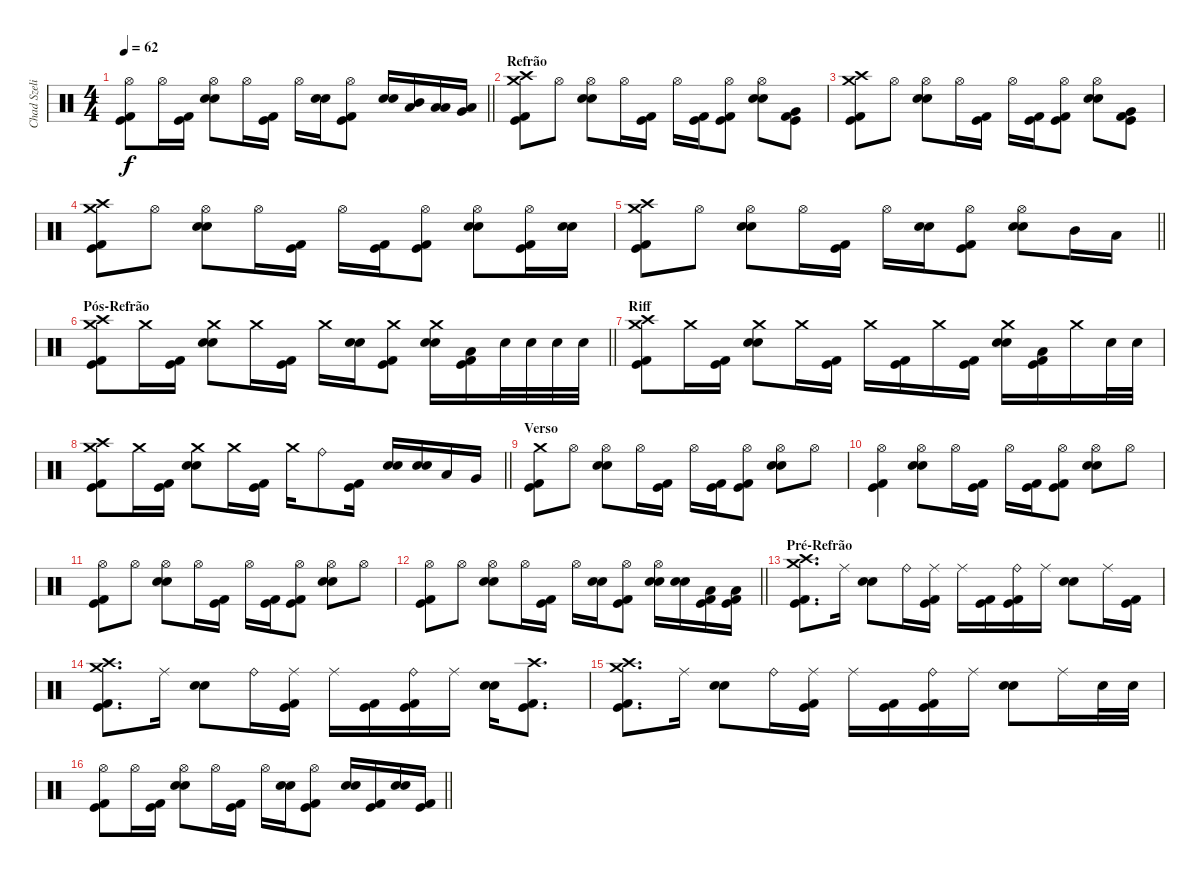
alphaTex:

\track ("Chad Szeliga" "Chad Szeli") {instrument percussion}
\staff {score}
\articulation defaults
\ts (4 4)
\tempo 62
\clef neutral
\barLineRight lightlight
\ks c
("Kick (hit) 2" "Kick (hit)" "Hi-Hat (open)").8{dy f} "Hi-Hat (open)".16 ("Kick (hit) 2" "Kick (hit)").16 ("Snare (hit) 2" "Snare (hit) 2" "Hi-Hat (open)").8 "Hi-Hat (open)".16 ("Kick (hit) 2" "Kick (hit)").16 "Hi-Hat (open)".16 ("Snare (hit) 2" "Snare (hit) 2").16 ("Kick (hit) 2" "Kick (hit)" "Hi-Hat (open)").8 ("Snare (hit) 2" "Snare (hit) 2").16 ("Mid Tom (hit)" "Low Tom (hit)").16 ("Low Tom (hit)" "Low Tom (hit)").16 ("Very Low Tom (hit)" "Low Tom (hit)").16 |
\section ("" "Refrão")
("Crash high (hit)" "Kick (hit) 2" "Kick (hit)" "Crash medium (hit)").8 "Hi-Hat (open)".8 ("Snare (hit) 2" "Snare (hit) 2" "Hi-Hat (open)").8 "Hi-Hat (open)".16 ("Kick (hit) 2" "Kick (hit)").16 "Hi-Hat (open)".16 ("Kick (hit) 2" "Kick (hit)").16 ("Kick (hit) 2" "Kick (hit)" "Hi-Hat (open)").8 ("Snare (hit) 2" "Snare (hit) 2" "Hi-Hat (open)").8 ("Kick (hit) 2" "Kick (hit)" "Very Low Tom (hit)").8 |
("Crash high (hit)" "Kick (hit) 2" "Kick (hit)" "Crash medium (hit)").8 "Hi-Hat (open)".8 ("Snare (hit) 2" "Snare (hit) 2" "Hi-Hat (open)").8 "Hi-Hat (open)".16 ("Kick (hit) 2" "Kick (hit)").16 "Hi-Hat (open)".16 ("Kick (hit) 2" "Kick (hit)").16 ("Kick (hit) 2" "Kick (hit)" "Hi-Hat (open)").8 ("Snare (hit) 2" "Snare (hit) 2" "Hi-Hat (open)").8 ("Kick (hit) 2" "Kick (hit)" "Very Low Tom (hit)").8 |
("Crash high (hit)" "Kick (hit) 2" "Kick (hit)" "Crash medium (hit)").8 "Hi-Hat (open)".8 ("Snare (hit) 2" "Snare (hit) 2" "Hi-Hat (open)").8 "Hi-Hat (open)".16 ("Kick (hit) 2" "Kick (hit)").16 "Hi-Hat (open)".16 ("Kick (hit) 2" "Kick (hit)").16 ("Kick (hit) 2" "Kick (hit)" "Hi-Hat (open)").8 ("Snare (hit) 2" "Snare (hit) 2" "Hi-Hat (open)").8 ("Kick (hit) 2" "Kick (hit)" "Hi-Hat (open)").16 ("Snare (hit) 2" "Snare (hit) 2").16 |
\barLineRight lightlight
("Crash high (hit)" "Kick (hit) 2" "Kick (hit)" "Crash medium (hit)").8 "Hi-Hat (open)".8 ("Snare (hit) 2" "Snare (hit) 2" "Hi-Hat (open)").8 "Hi-Hat (open)".16 ("Kick (hit) 2" "Kick (hit)").16 "Hi-Hat (open)".16 ("Snare (hit) 2" "Snare (hit) 2").16 ("Kick (hit) 2" "Kick (hit)" "Hi-Hat (open)").8 ("Snare (hit) 2" "Snare (hit) 2" "Hi-Hat (open)").8 "Mid Tom (hit)".16 "Low Tom (hit)".16 |
\section ("" "Pós-Refrão")
\barLineRight lightlight
("Crash high (hit)" "Kick (hit) 2" "Kick (hit)" "Crash medium (hit)").8 "Crash medium (hit)".16 ("Kick (hit) 2" "Kick (hit)").16 ("Crash medium (hit)" "Snare (hit) 2" "Snare (hit) 2").8 "Crash medium (hit)".16 ("Kick (hit) 2" "Kick (hit)").16 "Crash medium (hit)".16 ("Snare (hit) 2" "Snare (hit) 2").16 ("Crash medium (hit)" "Kick (hit) 2" "Kick (hit)").8 ("Crash medium (hit)" "Snare (hit) 2" "Snare (hit) 2").16 ("Kick (hit) 2" "Kick (hit)" "Low Tom (hit)").16 "Snare (hit) 2".32 "Snare (hit) 2".32 "Snare (hit) 2".32 "Snare (hit) 2".32 |
\section ("" "Riff")
("Crash high (hit)" "Kick (hit) 2" "Kick (hit)" "Crash medium (hit)").8 "Crash medium (hit)".16 ("Kick (hit) 2" "Kick (hit)").16 ("Crash medium (hit)" "Snare (hit) 2" "Snare (hit) 2").8 "Crash medium (hit)".16 ("Kick (hit) 2" "Kick (hit)").16 "Crash medium (hit)".16 ("Kick (hit) 2" "Kick (hit)").16 "Crash medium (hit)".16 ("Kick (hit) 2" "Kick (hit)").16 ("Crash medium (hit)" "Snare (hit) 2" "Snare (hit) 2").16 ("Kick (hit) 2" "Kick (hit)" "Low Tom (hit)").16 "Crash medium (hit)".16 "Snare (hit) 2".32 "Snare (hit) 2".32 |
\barLineRight lightlight
("Crash high (hit)" "Kick (hit) 2" "Kick (hit)" "Crash medium (hit)").8 "Crash medium (hit)".16 ("Kick (hit) 2" "Kick (hit)").16 ("Crash medium (hit)" "Snare (hit) 2" "Snare (hit) 2").8 "Crash medium (hit)".16 ("Kick (hit) 2" "Kick (hit)").16 "Crash medium (hit)".16 "Ride (bell)".8 ("Kick (hit) 2" "Kick (hit)").16 ("Snare (hit) 2" "Snare (hit) 2").16 ("Snare (hit) 2" "Snare (hit) 2").16 "Low Tom (hit)".16 "Very Low Tom (hit)".16 |
\section ("" "Verso")
("Crash medium (hit)" "Kick (hit) 2" "Kick (hit)").8 "Hi-Hat (open)".8 ("Snare (hit) 2" "Snare (hit) 2" "Hi-Hat (open)").8 "Hi-Hat (open)".16 ("Kick (hit) 2" "Kick (hit)").16 "Hi-Hat (open)".16 ("Kick (hit) 2" "Kick (hit)").16 ("Kick (hit) 2" "Kick (hit)" "Hi-Hat (open)").8 ("Snare (hit) 2" "Snare (hit) 2" "Hi-Hat (open)").8 "Hi-Hat (open)".8 |
("Kick (hit) 2" "Kick (hit)" "Hi-Hat (open)").4 ("Snare (hit) 2" "Snare (hit) 2" "Hi-Hat (open)").8 "Hi-Hat (open)".16 ("Kick (hit) 2" "Kick (hit)").16 "Hi-Hat (open)".16 ("Kick (hit) 2" "Kick (hit)").16 ("Kick (hit) 2" "Kick (hit)" "Hi-Hat (open)").8 ("Snare (hit) 2" "Snare (hit) 2" "Hi-Hat (open)").8 "Hi-Hat (open)".8 |
("Kick (hit) 2" "Kick (hit)" "Hi-Hat (open)").8 "Hi-Hat (open)".8 ("Snare (hit) 2" "Snare (hit) 2" "Hi-Hat (open)").8 "Hi-Hat (open)".16 ("Kick (hit) 2" "Kick (hit)").16 "Hi-Hat (open)".16 ("Kick (hit) 2" "Kick (hit)").16 ("Kick (hit) 2" "Kick (hit)" "Hi-Hat (open)").8 ("Snare (hit) 2" "Snare (hit) 2" "Hi-Hat (open)").8 "Hi-Hat (open)".8 |
\barLineRight lightlight
("Kick (hit) 2" "Kick (hit)" "Hi-Hat (open)").8 "Hi-Hat (open)".8 ("Snare (hit) 2" "Snare (hit) 2" "Hi-Hat (open)").8 "Hi-Hat (open)".16 ("Kick (hit) 2" "Kick (hit)").16 "Hi-Hat (open)".16 ("Snare (hit) 2" "Snare (hit) 2").16 ("Kick (hit) 2" "Kick (hit)" "Hi-Hat (open)").8 ("Snare (hit) 2" "Snare (hit) 2" "Hi-Hat (open)").16 ("Snare (hit) 2" "Snare (hit) 2").16 ("Kick (hit) 2" "Kick (hit)" "Low Tom (hit)").16 ("Kick (hit) 2" "Kick (hit)" "Low Tom (hit)").16 |
\section ("" "Pré-Refrão")
("Crash high (hit)" "Kick (hit) 2" "Kick (hit)" "Crash medium (hit)").8{d} "Ride (middle)".16 ("Snare (hit) 2" "Snare (hit) 2").8 "Ride (bell)".16 ("Ride (middle)" "Kick (hit) 2" "Kick (hit)").16 "Ride (middle)".16 ("Kick (hit) 2" "Kick (hit)").16 ("Ride (bell)" "Kick (hit) 2" "Kick (hit)").16 "Ride (middle)".16 ("Snare (hit) 2" "Snare (hit) 2").8 "Ride (middle)".16 ("Kick (hit) 2" "Kick (hit)").16 |
("Crash high (hit)" "Kick (hit) 2" "Kick (hit)" "Crash medium (hit)").8{d} "Ride (middle)".16 ("Snare (hit) 2" "Snare (hit) 2").8 "Ride (bell)".16 ("Ride (middle)" "Kick (hit) 2" "Kick (hit)").16 "Ride (middle)".16 ("Kick (hit) 2" "Kick (hit)").16 ("Ride (bell)" "Kick (hit) 2" "Kick (hit)").16 "Ride (middle)".16 ("Snare (hit) 2" "Snare (hit) 2").16 ("Crash high (hit)" "Kick (hit) 2" "Kick (hit)").8{d} |
("Crash high (hit)" "Kick (hit) 2" "Kick (hit)" "Crash medium (hit)").8{d} "Ride (middle)".16 ("Snare (hit) 2" "Snare (hit) 2").8 "Ride (bell)".16 ("Ride (middle)" "Kick (hit) 2" "Kick (hit)").16 "Ride (middle)".16 ("Kick (hit) 2" "Kick (hit)").16 ("Ride (bell)" "Kick (hit) 2" "Kick (hit)").16 "Ride (middle)".16 ("Snare (hit) 2" "Snare (hit) 2").8 "Ride (middle)".16 "Snare (hit) 2".32 "Snare (hit) 2".32 |
\barLineRight lightlight
("Kick (hit) 2" "Kick (hit)" "Hi-Hat (open)").8 "Hi-Hat (open)".16 ("Kick (hit) 2" "Kick (hit)").16 ("Snare (hit) 2" "Snare (hit) 2" "Hi-Hat (open)").8 "Hi-Hat (open)".16 ("Kick (hit) 2" "Kick (hit)").16 "Hi-Hat (open)".16 ("Snare (hit) 2" "Snare (hit) 2").16 ("Kick (hit) 2" "Kick (hit)" "Hi-Hat (open)").8 ("Snare (hit) 2" "Snare (hit) 2").16 ("Kick (hit) 2" "Kick (hit)").16 ("Snare (hit) 2" "Snare (hit) 2").16 ("Kick (hit) 2" "Kick (hit)").16
